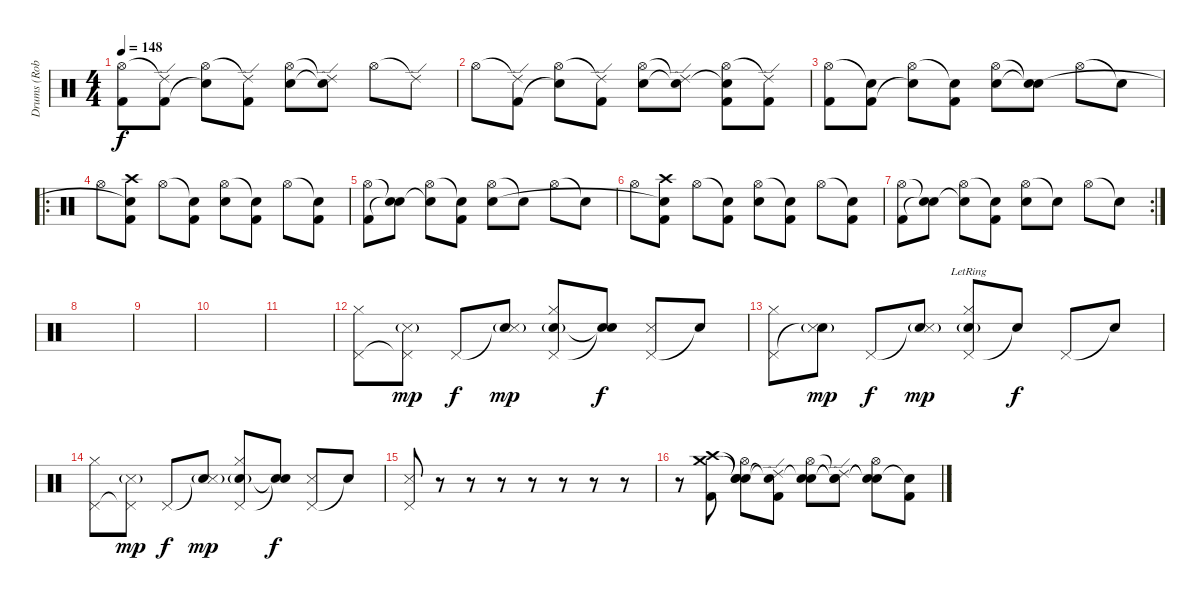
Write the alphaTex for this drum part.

\track ("Drums (Rob Bourdon)" "Drums (Rob") {instrument percussion}
\staff {score}
\articulation defaults
\ts (4 4)
\tempo 148
\clef neutral
\ks c
("Hi-Hat (open)" "Kick (hit) 2").8{dy f} ("Ride (edge) 2"{t} "Kick (hit) 2").8 ("Hi-Hat (open)" "Snare (hit)"{t}).8 ("Ride (edge) 2"{t} "Kick (hit) 2").8 ("Hi-Hat (open)" "Electric Snare (hit)").8 ("Ride (edge) 2"{t} "Snare (hit)"{t}).8 "Hi-Hat (open)".8 "Ride (edge) 2"{t}.8 |
"Hi-Hat (open)".8 ("Ride (edge) 2"{t} "Kick (hit) 2").8 ("Hi-Hat (open)" "Snare (hit)"{t}).8 ("Ride (edge) 2"{t} "Kick (hit) 2").8 ("Hi-Hat (open)" "Electric Snare (hit)").8 ("Ride (edge) 2"{t} "Snare (hit)"{t}).8 ("Hi-Hat (open)" "Snare (hit)"{t} "Kick (hit) 2").8 ("Ride (edge) 2"{t} "Kick (hit) 2").8 |
("Hi-Hat (open)" "Kick (hit) 2").8 ("Snare (hit)"{t} "Kick (hit) 2").8 ("Hi-Hat (open)" "Snare (hit)"{t}).8 ("Snare (hit)"{t} "Kick (hit) 2").8 ("Hi-Hat (open)" "Electric Snare (hit)").8 ("Snare (hit)"{t} "Snare (hit)"{t}).8 "Hi-Hat (open)".8 "Snare (hit)"{t}.8 |
\ro "Hi-Hat (open)".8
("Crash high (hit)" "Snare (hit)"{t} "Kick (hit) 2").8 "Hi-Hat (open)".8 ("Snare (hit)"{t} "Kick (hit) 2").8 ("Hi-Hat (open)" "Electric Snare (hit)").8 ("Snare (hit)"{t} "Kick (hit) 2").8 "Hi-Hat (open)".8 ("Snare (hit)"{t} "Kick (hit) 2").8 |
("Hi-Hat (open)" "Kick (hit) 2").8 ("Snare (hit)"{t} "Snare (hit)"{t}).8 ("Hi-Hat (open)" "Snare (hit)"{t}).8 ("Snare (hit)"{t} "Kick (hit) 2").8 ("Hi-Hat (open)" "Electric Snare (hit)").8 "Snare (hit)"{t}.8 "Hi-Hat (open)".8 "Snare (hit)"{t}.8 |
"Hi-Hat (open)".8 ("Crash high (hit)" "Snare (hit)"{t} "Kick (hit) 2").8 "Hi-Hat (open)".8 ("Snare (hit)"{t} "Kick (hit) 2").8 ("Hi-Hat (open)" "Electric Snare (hit)").8 ("Snare (hit)"{t} "Kick (hit) 2").8 "Hi-Hat (open)".8 ("Snare (hit)"{t} "Kick (hit) 2").8 |
\rc 2
("Hi-Hat (open)" "Kick (hit) 2").8 ("Snare (hit)"{t} "Snare (hit)"{t}).8 ("Hi-Hat (open)" "Snare (hit)"{t}).8 ("Snare (hit)"{t} "Kick (hit) 2").8 ("Hi-Hat (open)" "Electric Snare (hit)").8 "Snare (hit)"{t}.8 "Hi-Hat (open)".8 "Snare (hit)"{t}.8 |
|
|
|
|
("Pedal Hi-Hat (hit)" "Hi-Hat (closed)").8{volume 10} ("Pedal Hi-Hat (hit)"{t} "Metronome (hit)"{g}).8{dy mp} "Pedal Hi-Hat (hit)".8{dy f} ("Snare (hit)"{t} "Metronome (hit)"{g}).8{dy mp} ("Pedal Hi-Hat (hit)" "Metronome (bell)"{g} "Hi-Hat (closed)").8 ("Snare (hit)"{t} "Snare (hit)"{t}).8{dy f} ("Pedal Hi-Hat (hit)" "Metronome (hit)").8 "Snare (hit)"{t}.8 |
("Pedal Hi-Hat (hit)" "Hi-Hat (closed)").8 ("Snare (hit)"{t} "Metronome (hit)"{g}).8{dy mp} "Pedal Hi-Hat (hit)".8{dy f} ("Snare (hit)"{t} "Metronome (hit)"{g}).8{dy mp} ("Pedal Hi-Hat (hit)" "Metronome (bell)"{g lr} "Hi-Hat (closed)").8 "Snare (hit)"{t}.8{dy f} "Pedal Hi-Hat (hit)".8 "Snare (hit)"{t}.8 |
("Pedal Hi-Hat (hit)" "Hi-Hat (closed)").8{volume 10} ("Pedal Hi-Hat (hit)"{t} "Metronome (hit)"{g}).8{dy mp} "Pedal Hi-Hat (hit)".8{dy f} ("Snare (hit)"{t} "Metronome (hit)"{g}).8{dy mp} ("Pedal Hi-Hat (hit)" "Metronome (bell)"{g} "Hi-Hat (closed)").8 ("Snare (hit)"{t} "Snare (hit)"{t}).8{dy f} ("Pedal Hi-Hat (hit)" "Metronome (hit)").8 "Snare (hit)"{t}.8 |
("Pedal Hi-Hat (hit)" "Metronome (hit)").8 r.8 r.8 r.8 r.8 r.8 r.8 r.8 |
r.8 ("Crash medium (hit)" "Crash high (hit)" "Kick (hit) 2").8 ("Snare (hit)"{t} "Snare (hit)"{t} "Hi-Hat (open)" "Snare (hit)").8 ("Snare (hit)"{t} "Ride (edge) 2"{t} "Kick (hit) 2").8 ("Snare (hit)"{t} "Hi-Hat (open)" "Electric Snare (hit)").8 ("Snare (hit)"{t} "Ride (edge) 2"{t} "Snare (hit)"{t}).8 ("Snare (hit)"{t} "Hi-Hat (open)" "Snare (hit)"{t}).8 ("Snare (hit)"{t} "Kick (hit) 2").8
